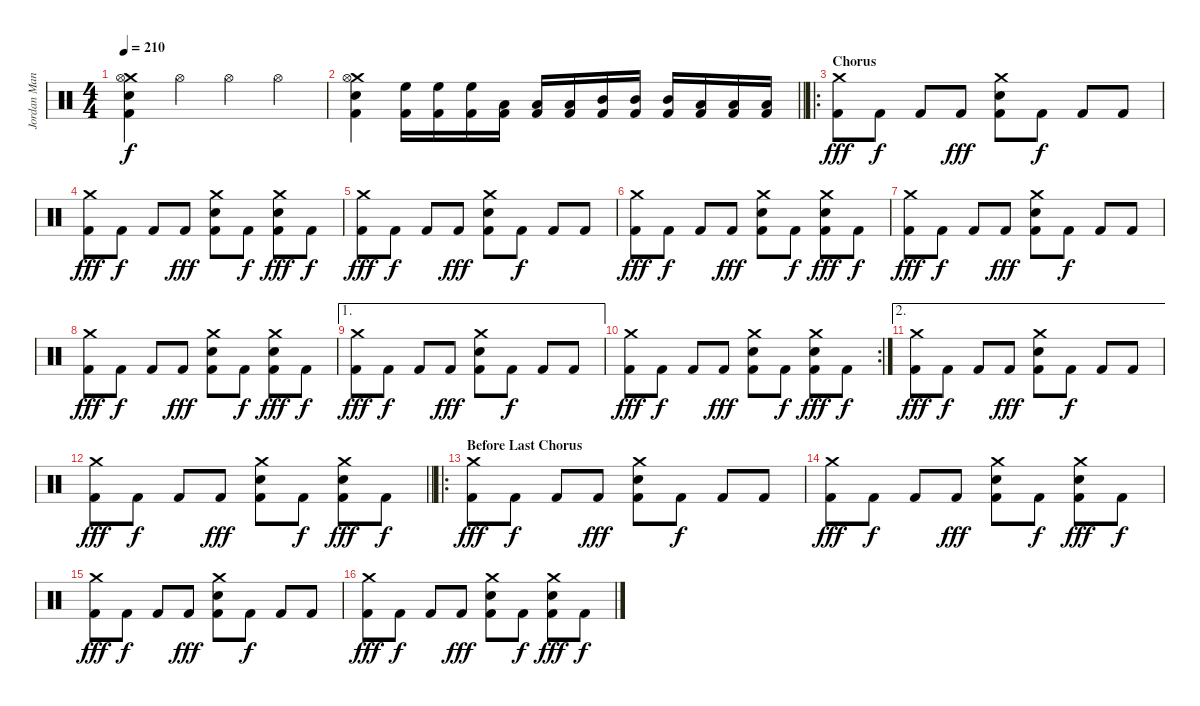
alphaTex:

\track ("Jordan Mancino" "Jordan Man") {instrument percussion}
\staff {score}
\articulation defaults
\ts (4 4)
\tempo 210
\clef neutral
\ks c
("Crash medium (hit)" "Kick (hit) 2" "Hi-Hat (open)" "Snare (hit) 2").4{dy f} "Hi-Hat (open)".4 "Hi-Hat (open)".4 "Hi-Hat (open)".4 |
\barLineRight lightlight
("Crash medium (hit)" "Kick (hit) 2" "Hi-Hat (open)" "Snare (hit) 2").4 ("High Floor Tom (hit)" "Kick (hit) 2").16 ("High Floor Tom (hit)" "Kick (hit) 2").16 ("High Floor Tom (hit)" "Kick (hit) 2").16 ("Low Tom (hit)" "Kick (hit) 2").16 ("Low Tom (hit)" "Kick (hit) 2").16 ("Low Tom (hit)" "Kick (hit) 2").16 ("Mid Tom (hit)" "Kick (hit) 2").16 ("Mid Tom (hit)" "Kick (hit) 2").16 ("Mid Tom (hit)" "Kick (hit) 2").16 ("Low Tom (hit)" "Kick (hit) 2").16 ("Low Tom (hit)" "Kick (hit) 2").16 ("Low Tom (hit)" "Kick (hit) 2").16 |
\ro
\section ("" "Chorus")
("Crash medium (hit)" "Kick (hit) 2").8{dy fff} "Kick (hit) 2".8{dy f} "Kick (hit) 2".8 "Kick (hit) 2".8{dy fff} ("Crash medium (hit)" "Snare (hit) 2" "Kick (hit) 2").8 "Kick (hit) 2".8{dy f} "Kick (hit) 2".8 "Kick (hit) 2".8 |
("Crash medium (hit)" "Kick (hit) 2").8{dy fff} "Kick (hit) 2".8{dy f} "Kick (hit) 2".8 "Kick (hit) 2".8{dy fff} ("Crash medium (hit)" "Snare (hit) 2" "Kick (hit) 2").8 "Kick (hit) 2".8{dy f} ("Crash medium (hit)" "Snare (hit) 2" "Kick (hit) 2").8{dy fff} "Kick (hit) 2".8{dy f} |
("Crash medium (hit)" "Kick (hit) 2").8{dy fff} "Kick (hit) 2".8{dy f} "Kick (hit) 2".8 "Kick (hit) 2".8{dy fff} ("Crash medium (hit)" "Snare (hit) 2" "Kick (hit) 2").8 "Kick (hit) 2".8{dy f} "Kick (hit) 2".8 "Kick (hit) 2".8 |
("Crash medium (hit)" "Kick (hit) 2").8{dy fff} "Kick (hit) 2".8{dy f} "Kick (hit) 2".8 "Kick (hit) 2".8{dy fff} ("Crash medium (hit)" "Snare (hit) 2" "Kick (hit) 2").8 "Kick (hit) 2".8{dy f} ("Crash medium (hit)" "Snare (hit) 2" "Kick (hit) 2").8{dy fff} "Kick (hit) 2".8{dy f} |
("Crash medium (hit)" "Kick (hit) 2").8{dy fff} "Kick (hit) 2".8{dy f} "Kick (hit) 2".8 "Kick (hit) 2".8{dy fff} ("Crash medium (hit)" "Snare (hit) 2" "Kick (hit) 2").8 "Kick (hit) 2".8{dy f} "Kick (hit) 2".8 "Kick (hit) 2".8 |
("Crash medium (hit)" "Kick (hit) 2").8{dy fff} "Kick (hit) 2".8{dy f} "Kick (hit) 2".8 "Kick (hit) 2".8{dy fff} ("Crash medium (hit)" "Snare (hit) 2" "Kick (hit) 2").8 "Kick (hit) 2".8{dy f} ("Crash medium (hit)" "Snare (hit) 2" "Kick (hit) 2").8{dy fff} "Kick (hit) 2".8{dy f} |
\ae 1
("Crash medium (hit)" "Kick (hit) 2").8{dy fff} "Kick (hit) 2".8{dy f} "Kick (hit) 2".8 "Kick (hit) 2".8{dy fff} ("Crash medium (hit)" "Snare (hit) 2" "Kick (hit) 2").8 "Kick (hit) 2".8{dy f} "Kick (hit) 2".8 "Kick (hit) 2".8 |
\rc 2
("Crash medium (hit)" "Kick (hit) 2").8{dy fff} "Kick (hit) 2".8{dy f} "Kick (hit) 2".8 "Kick (hit) 2".8{dy fff} ("Crash medium (hit)" "Snare (hit) 2" "Kick (hit) 2").8 "Kick (hit) 2".8{dy f} ("Crash medium (hit)" "Snare (hit) 2" "Kick (hit) 2").8{dy fff} "Kick (hit) 2".8{dy f} |
\ae 2
("Crash medium (hit)" "Kick (hit) 2").8{dy fff} "Kick (hit) 2".8{dy f} "Kick (hit) 2".8 "Kick (hit) 2".8{dy fff} ("Crash medium (hit)" "Snare (hit) 2" "Kick (hit) 2").8 "Kick (hit) 2".8{dy f} "Kick (hit) 2".8 "Kick (hit) 2".8 |
\barLineRight lightlight
("Crash medium (hit)" "Kick (hit) 2").8{dy fff} "Kick (hit) 2".8{dy f} "Kick (hit) 2".8 "Kick (hit) 2".8{dy fff} ("Crash medium (hit)" "Snare (hit) 2" "Kick (hit) 2").8 "Kick (hit) 2".8{dy f} ("Crash medium (hit)" "Snare (hit) 2" "Kick (hit) 2").8{dy fff} "Kick (hit) 2".8{dy f} |
\ro
\section ("" "Before Last Chorus")
("Crash medium (hit)" "Kick (hit) 2").8{dy fff} "Kick (hit) 2".8{dy f} "Kick (hit) 2".8 "Kick (hit) 2".8{dy fff} ("Crash medium (hit)" "Snare (hit) 2" "Kick (hit) 2").8 "Kick (hit) 2".8{dy f} "Kick (hit) 2".8 "Kick (hit) 2".8 |
("Crash medium (hit)" "Kick (hit) 2").8{dy fff} "Kick (hit) 2".8{dy f} "Kick (hit) 2".8 "Kick (hit) 2".8{dy fff} ("Crash medium (hit)" "Snare (hit) 2" "Kick (hit) 2").8 "Kick (hit) 2".8{dy f} ("Crash medium (hit)" "Snare (hit) 2" "Kick (hit) 2").8{dy fff} "Kick (hit) 2".8{dy f} |
("Crash medium (hit)" "Kick (hit) 2").8{dy fff} "Kick (hit) 2".8{dy f} "Kick (hit) 2".8 "Kick (hit) 2".8{dy fff} ("Crash medium (hit)" "Snare (hit) 2" "Kick (hit) 2").8 "Kick (hit) 2".8{dy f} "Kick (hit) 2".8 "Kick (hit) 2".8 |
("Crash medium (hit)" "Kick (hit) 2").8{dy fff} "Kick (hit) 2".8{dy f} "Kick (hit) 2".8 "Kick (hit) 2".8{dy fff} ("Crash medium (hit)" "Snare (hit) 2" "Kick (hit) 2").8 "Kick (hit) 2".8{dy f} ("Crash medium (hit)" "Snare (hit) 2" "Kick (hit) 2").8{dy fff} "Kick (hit) 2".8{dy f}
